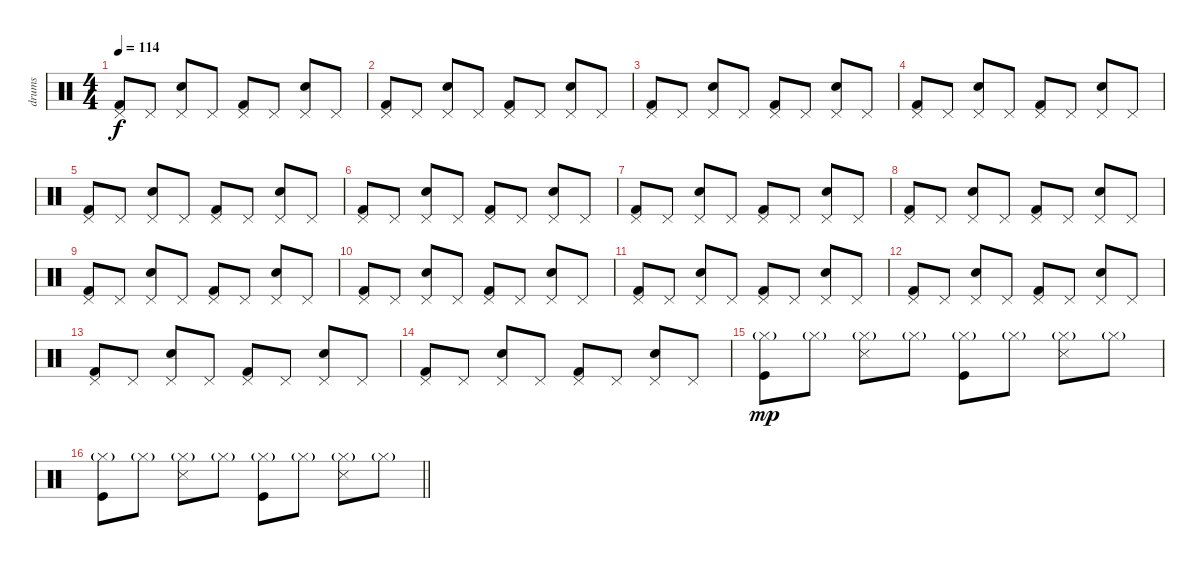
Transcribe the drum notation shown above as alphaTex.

\track ("drums" "drums") {instrument percussion}
\staff {score}
\articulation defaults
\ts (4 4)
\tempo 114
\clef neutral
\ks c
("Kick (hit) 2" "Pedal Hi-Hat (hit)").8{dy f} "Pedal Hi-Hat (hit)".8 ("Electric Snare (hit)" "Pedal Hi-Hat (hit)").8 "Pedal Hi-Hat (hit)".8 ("Kick (hit) 2" "Pedal Hi-Hat (hit)").8 "Pedal Hi-Hat (hit)".8 ("Electric Snare (hit)" "Pedal Hi-Hat (hit)").8 "Pedal Hi-Hat (hit)".8 |
("Kick (hit) 2" "Pedal Hi-Hat (hit)").8 "Pedal Hi-Hat (hit)".8 ("Electric Snare (hit)" "Pedal Hi-Hat (hit)").8 "Pedal Hi-Hat (hit)".8 ("Kick (hit) 2" "Pedal Hi-Hat (hit)").8 "Pedal Hi-Hat (hit)".8 ("Electric Snare (hit)" "Pedal Hi-Hat (hit)").8 "Pedal Hi-Hat (hit)".8 |
("Kick (hit) 2" "Pedal Hi-Hat (hit)").8 "Pedal Hi-Hat (hit)".8 ("Electric Snare (hit)" "Pedal Hi-Hat (hit)").8 "Pedal Hi-Hat (hit)".8 ("Kick (hit) 2" "Pedal Hi-Hat (hit)").8 "Pedal Hi-Hat (hit)".8 ("Electric Snare (hit)" "Pedal Hi-Hat (hit)").8 "Pedal Hi-Hat (hit)".8 |
("Kick (hit) 2" "Pedal Hi-Hat (hit)").8 "Pedal Hi-Hat (hit)".8 ("Electric Snare (hit)" "Pedal Hi-Hat (hit)").8 "Pedal Hi-Hat (hit)".8 ("Kick (hit) 2" "Pedal Hi-Hat (hit)").8 "Pedal Hi-Hat (hit)".8 ("Electric Snare (hit)" "Pedal Hi-Hat (hit)").8 "Pedal Hi-Hat (hit)".8 |
("Kick (hit) 2" "Pedal Hi-Hat (hit)").8 "Pedal Hi-Hat (hit)".8 ("Electric Snare (hit)" "Pedal Hi-Hat (hit)").8 "Pedal Hi-Hat (hit)".8 ("Kick (hit) 2" "Pedal Hi-Hat (hit)").8 "Pedal Hi-Hat (hit)".8 ("Electric Snare (hit)" "Pedal Hi-Hat (hit)").8 "Pedal Hi-Hat (hit)".8 |
("Kick (hit) 2" "Pedal Hi-Hat (hit)").8 "Pedal Hi-Hat (hit)".8 ("Electric Snare (hit)" "Pedal Hi-Hat (hit)").8 "Pedal Hi-Hat (hit)".8 ("Kick (hit) 2" "Pedal Hi-Hat (hit)").8 "Pedal Hi-Hat (hit)".8 ("Electric Snare (hit)" "Pedal Hi-Hat (hit)").8 "Pedal Hi-Hat (hit)".8 |
("Kick (hit) 2" "Pedal Hi-Hat (hit)").8 "Pedal Hi-Hat (hit)".8 ("Electric Snare (hit)" "Pedal Hi-Hat (hit)").8 "Pedal Hi-Hat (hit)".8 ("Kick (hit) 2" "Pedal Hi-Hat (hit)").8 "Pedal Hi-Hat (hit)".8 ("Electric Snare (hit)" "Pedal Hi-Hat (hit)").8 "Pedal Hi-Hat (hit)".8 |
("Kick (hit) 2" "Pedal Hi-Hat (hit)").8 "Pedal Hi-Hat (hit)".8 ("Electric Snare (hit)" "Pedal Hi-Hat (hit)").8 "Pedal Hi-Hat (hit)".8 ("Kick (hit) 2" "Pedal Hi-Hat (hit)").8 "Pedal Hi-Hat (hit)".8 ("Electric Snare (hit)" "Pedal Hi-Hat (hit)").8 "Pedal Hi-Hat (hit)".8 |
("Kick (hit) 2" "Pedal Hi-Hat (hit)").8 "Pedal Hi-Hat (hit)".8 ("Electric Snare (hit)" "Pedal Hi-Hat (hit)").8 "Pedal Hi-Hat (hit)".8 ("Kick (hit) 2" "Pedal Hi-Hat (hit)").8 "Pedal Hi-Hat (hit)".8 ("Electric Snare (hit)" "Pedal Hi-Hat (hit)").8 "Pedal Hi-Hat (hit)".8 |
("Kick (hit) 2" "Pedal Hi-Hat (hit)").8 "Pedal Hi-Hat (hit)".8 ("Electric Snare (hit)" "Pedal Hi-Hat (hit)").8 "Pedal Hi-Hat (hit)".8 ("Kick (hit) 2" "Pedal Hi-Hat (hit)").8 "Pedal Hi-Hat (hit)".8 ("Electric Snare (hit)" "Pedal Hi-Hat (hit)").8 "Pedal Hi-Hat (hit)".8 |
("Kick (hit) 2" "Pedal Hi-Hat (hit)").8 "Pedal Hi-Hat (hit)".8 ("Electric Snare (hit)" "Pedal Hi-Hat (hit)").8 "Pedal Hi-Hat (hit)".8 ("Kick (hit) 2" "Pedal Hi-Hat (hit)").8 "Pedal Hi-Hat (hit)".8 ("Electric Snare (hit)" "Pedal Hi-Hat (hit)").8 "Pedal Hi-Hat (hit)".8 |
("Kick (hit) 2" "Pedal Hi-Hat (hit)").8 "Pedal Hi-Hat (hit)".8 ("Electric Snare (hit)" "Pedal Hi-Hat (hit)").8 "Pedal Hi-Hat (hit)".8 ("Kick (hit) 2" "Pedal Hi-Hat (hit)").8 "Pedal Hi-Hat (hit)".8 ("Electric Snare (hit)" "Pedal Hi-Hat (hit)").8 "Pedal Hi-Hat (hit)".8 |
("Kick (hit) 2" "Pedal Hi-Hat (hit)").8 "Pedal Hi-Hat (hit)".8 ("Electric Snare (hit)" "Pedal Hi-Hat (hit)").8 "Pedal Hi-Hat (hit)".8 ("Kick (hit) 2" "Pedal Hi-Hat (hit)").8 "Pedal Hi-Hat (hit)".8 ("Electric Snare (hit)" "Pedal Hi-Hat (hit)").8 "Pedal Hi-Hat (hit)".8 |
("Kick (hit) 2" "Pedal Hi-Hat (hit)").8 "Pedal Hi-Hat (hit)".8 ("Electric Snare (hit)" "Pedal Hi-Hat (hit)").8 "Pedal Hi-Hat (hit)".8 ("Kick (hit) 2" "Pedal Hi-Hat (hit)").8 "Pedal Hi-Hat (hit)".8 ("Electric Snare (hit)" "Pedal Hi-Hat (hit)").8 "Pedal Hi-Hat (hit)".8 |
("Kick (hit)" "Hi-Hat (closed)"{g}).8{dy mp volume 11} "Hi-Hat (closed)"{g}.8 ("Snare (side stick) 3" "Hi-Hat (closed)"{g}).8 "Hi-Hat (closed)"{g}.8 ("Kick (hit)" "Hi-Hat (closed)"{g}).8 "Hi-Hat (closed)"{g}.8 ("Snare (side stick) 3" "Hi-Hat (closed)"{g}).8 "Hi-Hat (closed)"{g}.8 |
\barLineRight lightlight
("Kick (hit)" "Hi-Hat (closed)"{g}).8 "Hi-Hat (closed)"{g}.8 ("Snare (side stick) 3" "Hi-Hat (closed)"{g}).8 "Hi-Hat (closed)"{g}.8 ("Kick (hit)" "Hi-Hat (closed)"{g}).8 "Hi-Hat (closed)"{g}.8 ("Snare (side stick) 3" "Hi-Hat (closed)"{g}).8 "Hi-Hat (closed)"{g}.8
